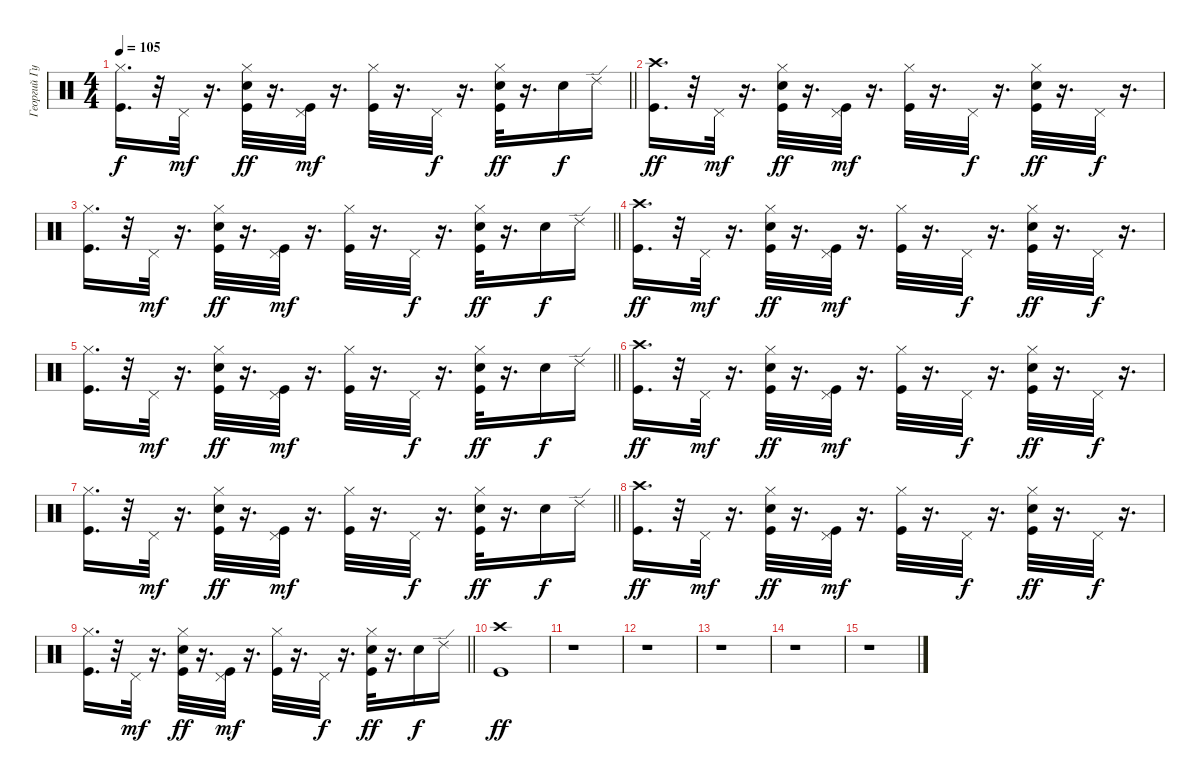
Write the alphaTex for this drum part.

\track ("Георгий Гурьянов" "Георгий Гу") {instrument percussion}
\staff {score}
\articulation defaults
\ts (4 4)
\tempo 105
\clef neutral
\barLineRight lightlight
\ks c
("Hi-Hat (closed)" "Kick (hit)").16{d dy f} r.32 "Pedal Hi-Hat (hit)".32{dy mf} r.16{d} ("Hi-Hat (closed)" "Snare (hit) 2" "Kick (hit)").32{dy ff} r.16{d} ("Pedal Hi-Hat (hit)" "Kick (hit)").32{dy mf} r.16{d} ("Hi-Hat (closed)" "Kick (hit)").32 r.16{d} "Pedal Hi-Hat (hit)".32{dy f} r.16{d} ("Hi-Hat (closed)" "Snare (hit) 2" "Kick (hit)").32{dy ff} r.16{d} "Snare (hit) 2".16{dy f} "Ride (edge) 2".16 |
("Crash high (hit)" "Kick (hit)").16{d dy ff} r.32 "Pedal Hi-Hat (hit)".32{dy mf} r.16{d} ("Hi-Hat (closed)" "Snare (hit) 2" "Kick (hit)").32{dy ff} r.16{d} ("Pedal Hi-Hat (hit)" "Kick (hit)").32{dy mf} r.16{d} ("Hi-Hat (closed)" "Kick (hit)").32 r.16{d} "Pedal Hi-Hat (hit)".32{dy f} r.16{d} ("Hi-Hat (closed)" "Snare (hit) 2" "Kick (hit)").32{dy ff} r.16{d} "Pedal Hi-Hat (hit)".32{dy f} r.16{d} |
\barLineRight lightlight
("Hi-Hat (closed)" "Kick (hit)").16{d} r.32 "Pedal Hi-Hat (hit)".32{dy mf} r.16{d} ("Hi-Hat (closed)" "Snare (hit) 2" "Kick (hit)").32{dy ff} r.16{d} ("Pedal Hi-Hat (hit)" "Kick (hit)").32{dy mf} r.16{d} ("Hi-Hat (closed)" "Kick (hit)").32 r.16{d} "Pedal Hi-Hat (hit)".32{dy f} r.16{d} ("Hi-Hat (closed)" "Snare (hit) 2" "Kick (hit)").32{dy ff} r.16{d} "Snare (hit) 2".16{dy f} "Ride (edge) 2".16 |
("Crash high (hit)" "Kick (hit)").16{d dy ff} r.32 "Pedal Hi-Hat (hit)".32{dy mf} r.16{d} ("Hi-Hat (closed)" "Snare (hit) 2" "Kick (hit)").32{dy ff} r.16{d} ("Pedal Hi-Hat (hit)" "Kick (hit)").32{dy mf} r.16{d} ("Hi-Hat (closed)" "Kick (hit)").32 r.16{d} "Pedal Hi-Hat (hit)".32{dy f} r.16{d} ("Hi-Hat (closed)" "Snare (hit) 2" "Kick (hit)").32{dy ff} r.16{d} "Pedal Hi-Hat (hit)".32{dy f} r.16{d} |
\barLineRight lightlight
("Hi-Hat (closed)" "Kick (hit)").16{d} r.32 "Pedal Hi-Hat (hit)".32{dy mf} r.16{d} ("Hi-Hat (closed)" "Snare (hit) 2" "Kick (hit)").32{dy ff} r.16{d} ("Pedal Hi-Hat (hit)" "Kick (hit)").32{dy mf} r.16{d} ("Hi-Hat (closed)" "Kick (hit)").32 r.16{d} "Pedal Hi-Hat (hit)".32{dy f} r.16{d} ("Hi-Hat (closed)" "Snare (hit) 2" "Kick (hit)").32{dy ff} r.16{d} "Snare (hit) 2".16{dy f} "Ride (edge) 2".16 |
("Crash high (hit)" "Kick (hit)").16{d dy ff} r.32 "Pedal Hi-Hat (hit)".32{dy mf} r.16{d} ("Hi-Hat (closed)" "Snare (hit) 2" "Kick (hit)").32{dy ff} r.16{d} ("Pedal Hi-Hat (hit)" "Kick (hit)").32{dy mf} r.16{d} ("Hi-Hat (closed)" "Kick (hit)").32 r.16{d} "Pedal Hi-Hat (hit)".32{dy f} r.16{d} ("Hi-Hat (closed)" "Snare (hit) 2" "Kick (hit)").32{dy ff} r.16{d} "Pedal Hi-Hat (hit)".32{dy f} r.16{d} |
\barLineRight lightlight
("Hi-Hat (closed)" "Kick (hit)").16{d} r.32 "Pedal Hi-Hat (hit)".32{dy mf} r.16{d} ("Hi-Hat (closed)" "Snare (hit) 2" "Kick (hit)").32{dy ff} r.16{d} ("Pedal Hi-Hat (hit)" "Kick (hit)").32{dy mf} r.16{d} ("Hi-Hat (closed)" "Kick (hit)").32 r.16{d} "Pedal Hi-Hat (hit)".32{dy f} r.16{d} ("Hi-Hat (closed)" "Snare (hit) 2" "Kick (hit)").32{dy ff} r.16{d} "Snare (hit) 2".16{dy f} "Ride (edge) 2".16 |
("Crash high (hit)" "Kick (hit)").16{d dy ff} r.32 "Pedal Hi-Hat (hit)".32{dy mf} r.16{d} ("Hi-Hat (closed)" "Snare (hit) 2" "Kick (hit)").32{dy ff} r.16{d} ("Pedal Hi-Hat (hit)" "Kick (hit)").32{dy mf} r.16{d} ("Hi-Hat (closed)" "Kick (hit)").32 r.16{d} "Pedal Hi-Hat (hit)".32{dy f} r.16{d} ("Hi-Hat (closed)" "Snare (hit) 2" "Kick (hit)").32{dy ff} r.16{d} "Pedal Hi-Hat (hit)".32{dy f} r.16{d} |
\barLineRight lightlight
("Hi-Hat (closed)" "Kick (hit)").16{d} r.32 "Pedal Hi-Hat (hit)".32{dy mf} r.16{d} ("Hi-Hat (closed)" "Snare (hit) 2" "Kick (hit)").32{dy ff} r.16{d} ("Pedal Hi-Hat (hit)" "Kick (hit)").32{dy mf} r.16{d} ("Hi-Hat (closed)" "Kick (hit)").32 r.16{d} "Pedal Hi-Hat (hit)".32{dy f} r.16{d} ("Hi-Hat (closed)" "Snare (hit) 2" "Kick (hit)").32{dy ff} r.16{d} "Snare (hit) 2".16{dy f} "Ride (edge) 2".16 |
("Crash high (hit)" "Kick (hit)").1{dy ff} |
r.1 |
r.1 |
r.1 |
r.1 |
r.1
